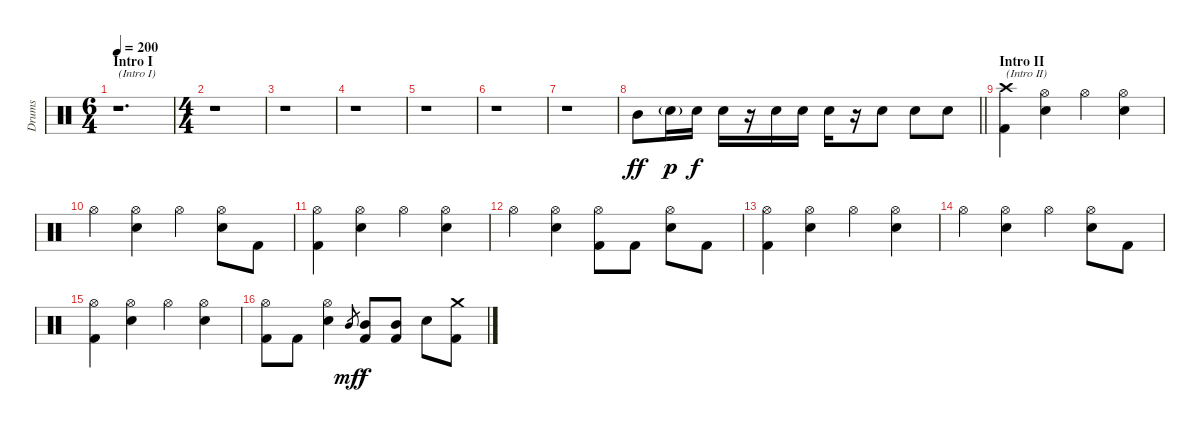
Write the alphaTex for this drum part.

\track ("Drums" "Drums") {instrument percussion}
\staff {score}
\articulation defaults
\ts (6 4)
\section ("" "Intro I")
\tempo 200
\clef neutral
\ks c
r.1{d txt "(Intro I)" dy ff} |
\ts (4 4)
r.1 |
r.1 |
r.1 |
r.1 |
r.1 |
r.1 |
\barLineRight lightlight "Mid Tom (hit)".8 "Electric Snare (hit)"{g}.16{dy p} "Electric Snare (hit)".16{dy f} "Electric Snare (hit)".16
r.16 "Electric Snare (hit)".16 "Electric Snare (hit)".16 "Electric Snare (hit)".16 r.16 "Electric Snare (hit)".8 "Electric Snare (hit)".8 "Electric Snare (hit)".8 |
\section ("" "Intro II")
("Crash high (hit)" "Kick (hit) 2").4{txt "(Intro II)"} ("Hi-Hat (open)" "Electric Snare (hit)").4 "Hi-Hat (open)".4 ("Hi-Hat (open)" "Electric Snare (hit)").4 |
"Hi-Hat (open)".4 ("Hi-Hat (open)" "Electric Snare (hit)").4 "Hi-Hat (open)".4 ("Hi-Hat (open)" "Electric Snare (hit)").8 "Kick (hit) 2".8 |
("Hi-Hat (open)" "Kick (hit) 2").4 ("Hi-Hat (open)" "Electric Snare (hit)").4 "Hi-Hat (open)".4 ("Hi-Hat (open)" "Electric Snare (hit)").4 |
"Hi-Hat (open)".4 ("Hi-Hat (open)" "Electric Snare (hit)").4 ("Hi-Hat (open)" "Kick (hit) 2").8 "Kick (hit) 2".8 ("Hi-Hat (open)" "Electric Snare (hit)").8 "Kick (hit) 2".8 |
("Hi-Hat (open)" "Kick (hit) 2").4 ("Hi-Hat (open)" "Electric Snare (hit)").4 "Hi-Hat (open)".4 ("Hi-Hat (open)" "Electric Snare (hit)").4 |
"Hi-Hat (open)".4 ("Hi-Hat (open)" "Electric Snare (hit)").4 "Hi-Hat (open)".4 ("Hi-Hat (open)" "Electric Snare (hit)").8 "Kick (hit) 2".8 |
("Hi-Hat (open)" "Kick (hit) 2").4 ("Hi-Hat (open)" "Electric Snare (hit)").4 "Hi-Hat (open)".4 ("Hi-Hat (open)" "Electric Snare (hit)").4 |
("Hi-Hat (open)" "Kick (hit) 2").8 "Kick (hit) 2".8 ("Hi-Hat (open)" "Electric Snare (hit)").4 "Mid Tom (hit)".8{gr dy mf} ("Mid Tom (hit)" "Kick (hit) 2").8{dy f} ("Mid Tom (hit)" "Kick (hit) 2").8 "Electric Snare (hit)".8 ("Crash medium (hit)" "Kick (hit) 2").8
